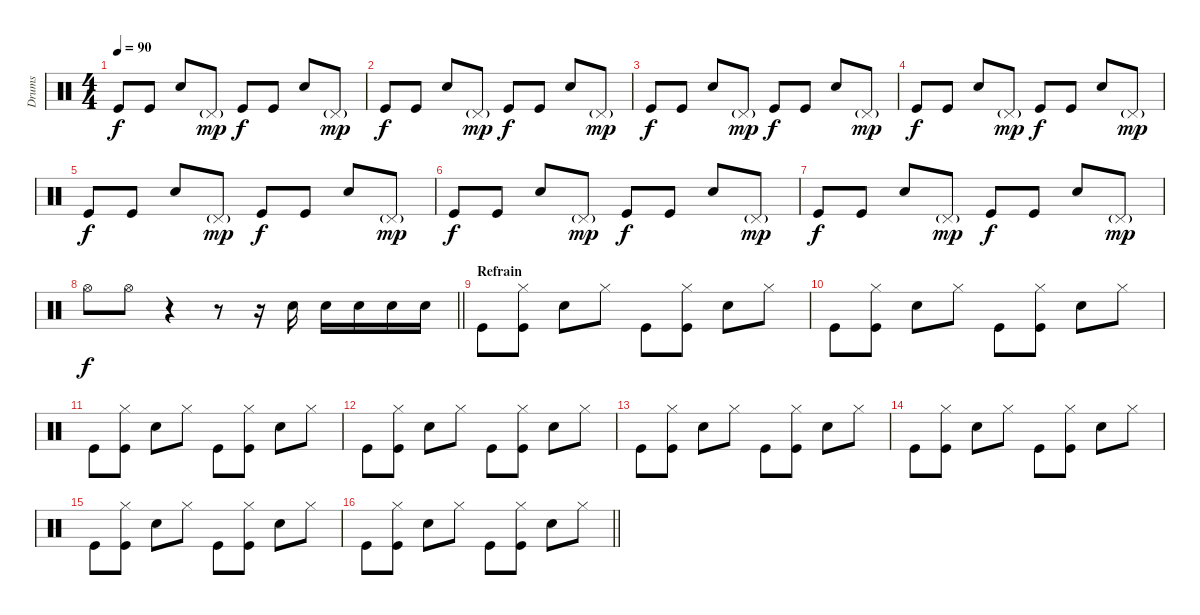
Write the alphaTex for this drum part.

\track ("Drums" "Drums") {instrument percussion}
\staff {score}
\articulation defaults
\ts (4 4)
\tempo 90
\clef neutral
\ks c "Kick (hit)".8{dy f} "Kick (hit)".8 "Snare (hit) 2".8 "Pedal Hi-Hat (hit)"{g}.8{dy mp} "Kick (hit)".8{dy f} "Kick (hit)".8 "Snare (hit) 2".8 "Pedal Hi-Hat (hit)"{g}.8{dy mp}
|
"Kick (hit)".8{dy f} "Kick (hit)".8 "Snare (hit) 2".8 "Pedal Hi-Hat (hit)"{g}.8{dy mp} "Kick (hit)".8{dy f} "Kick (hit)".8 "Snare (hit) 2".8 "Pedal Hi-Hat (hit)"{g}.8{dy mp} |
"Kick (hit)".8{dy f} "Kick (hit)".8 "Snare (hit) 2".8 "Pedal Hi-Hat (hit)"{g}.8{dy mp} "Kick (hit)".8{dy f} "Kick (hit)".8 "Snare (hit) 2".8 "Pedal Hi-Hat (hit)"{g}.8{dy mp} |
"Kick (hit)".8{dy f} "Kick (hit)".8 "Snare (hit) 2".8 "Pedal Hi-Hat (hit)"{g}.8{dy mp} "Kick (hit)".8{dy f} "Kick (hit)".8 "Snare (hit) 2".8 "Pedal Hi-Hat (hit)"{g}.8{dy mp} |
"Kick (hit)".8{dy f} "Kick (hit)".8 "Snare (hit) 2".8 "Pedal Hi-Hat (hit)"{g}.8{dy mp} "Kick (hit)".8{dy f} "Kick (hit)".8 "Snare (hit) 2".8 "Pedal Hi-Hat (hit)"{g}.8{dy mp} |
"Kick (hit)".8{dy f} "Kick (hit)".8 "Snare (hit) 2".8 "Pedal Hi-Hat (hit)"{g}.8{dy mp} "Kick (hit)".8{dy f} "Kick (hit)".8 "Snare (hit) 2".8 "Pedal Hi-Hat (hit)"{g}.8{dy mp} |
"Kick (hit)".8{dy f} "Kick (hit)".8 "Snare (hit) 2".8 "Pedal Hi-Hat (hit)"{g}.8{dy mp} "Kick (hit)".8{dy f} "Kick (hit)".8 "Snare (hit) 2".8 "Pedal Hi-Hat (hit)"{g}.8{dy mp} |
\barLineRight lightlight "Hi-Hat (open)".8{dy f} "Hi-Hat (open)".8
r.4 r.8 r.16 "Snare (hit) 2".16 "Snare (hit) 2".16 "Snare (hit) 2".16 "Snare (hit) 2".16 "Snare (hit) 2".16 |
\section ("" "Refrain")
"Kick (hit)".8 ("Hi-Hat (closed)" "Kick (hit)").8 "Snare (hit) 2".8 "Hi-Hat (closed)".8 "Kick (hit)".8 ("Hi-Hat (closed)" "Kick (hit)").8 "Snare (hit) 2".8 "Hi-Hat (closed)".8 |
"Kick (hit)".8 ("Hi-Hat (closed)" "Kick (hit)").8 "Snare (hit) 2".8 "Hi-Hat (closed)".8 "Kick (hit)".8 ("Hi-Hat (closed)" "Kick (hit)").8 "Snare (hit) 2".8 "Hi-Hat (closed)".8 |
"Kick (hit)".8 ("Hi-Hat (closed)" "Kick (hit)").8 "Snare (hit) 2".8 "Hi-Hat (closed)".8 "Kick (hit)".8 ("Hi-Hat (closed)" "Kick (hit)").8 "Snare (hit) 2".8 "Hi-Hat (closed)".8 |
"Kick (hit)".8 ("Hi-Hat (closed)" "Kick (hit)").8 "Snare (hit) 2".8 "Hi-Hat (closed)".8 "Kick (hit)".8 ("Hi-Hat (closed)" "Kick (hit)").8 "Snare (hit) 2".8 "Hi-Hat (closed)".8 |
"Kick (hit)".8 ("Hi-Hat (closed)" "Kick (hit)").8 "Snare (hit) 2".8 "Hi-Hat (closed)".8 "Kick (hit)".8 ("Hi-Hat (closed)" "Kick (hit)").8 "Snare (hit) 2".8 "Hi-Hat (closed)".8 |
"Kick (hit)".8 ("Hi-Hat (closed)" "Kick (hit)").8 "Snare (hit) 2".8 "Hi-Hat (closed)".8 "Kick (hit)".8 ("Hi-Hat (closed)" "Kick (hit)").8 "Snare (hit) 2".8 "Hi-Hat (closed)".8 |
"Kick (hit)".8 ("Hi-Hat (closed)" "Kick (hit)").8 "Snare (hit) 2".8 "Hi-Hat (closed)".8 "Kick (hit)".8 ("Hi-Hat (closed)" "Kick (hit)").8 "Snare (hit) 2".8 "Hi-Hat (closed)".8 |
\barLineRight lightlight "Kick (hit)".8
("Hi-Hat (closed)" "Kick (hit)").8 "Snare (hit) 2".8 "Hi-Hat (closed)".8 "Kick (hit)".8 ("Hi-Hat (closed)" "Kick (hit)").8 "Snare (hit) 2".8 "Hi-Hat (closed)".8
